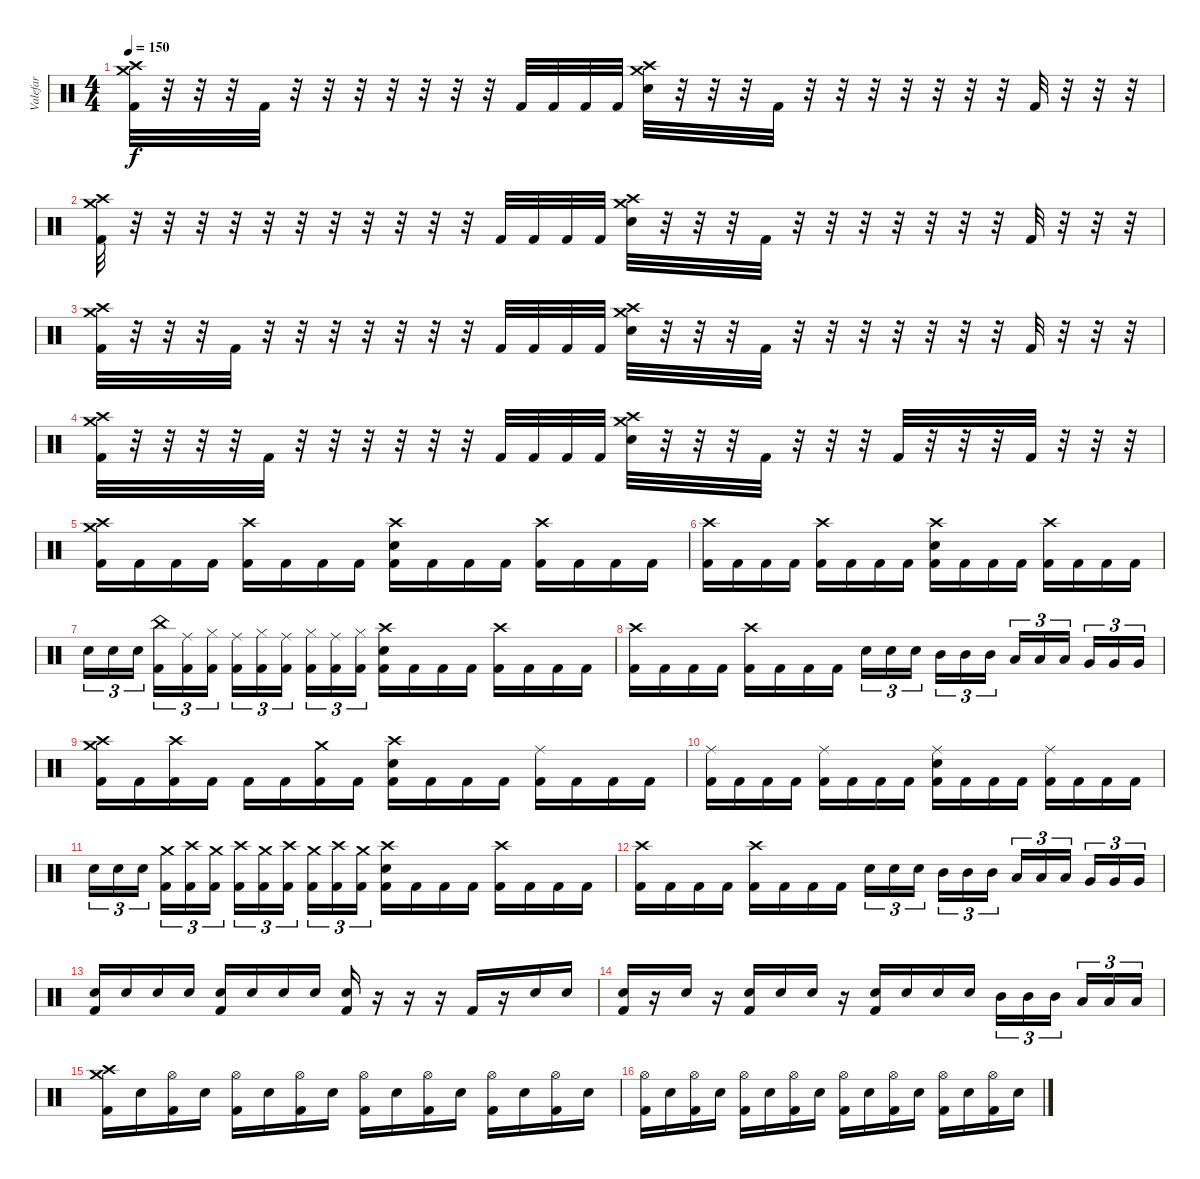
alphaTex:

\track ("Valefar" "Valefar") {instrument percussion}
\staff {score}
\articulation defaults
\ts (4 4)
\tempo 150
\clef neutral
\ks c
("Crash medium (hit)" "Crash high (hit)" "Kick (hit) 2").32{dy f} r.32 r.32 r.32 "Kick (hit) 2".32 r.32 r.32 r.32 r.32 r.32 r.32 r.32 "Kick (hit) 2".32 "Kick (hit) 2".32 "Kick (hit) 2".32 "Kick (hit) 2".32 ("Crash medium (hit)" "Crash high (hit)" "Electric Snare (hit)").32 r.32 r.32 r.32 "Kick (hit) 2".32 r.32 r.32 r.32 r.32 r.32 r.32 r.32 "Kick (hit) 2".32 r.32 r.32 r.32 |
("Crash medium (hit)" "Crash high (hit)" "Kick (hit) 2").32 r.32 r.32 r.32 r.32 r.32 r.32 r.32 r.32 r.32 r.32 r.32 "Kick (hit) 2".32 "Kick (hit) 2".32 "Kick (hit) 2".32 "Kick (hit) 2".32 ("Crash medium (hit)" "Crash high (hit)" "Electric Snare (hit)").32 r.32 r.32 r.32 "Kick (hit) 2".32 r.32 r.32 r.32 r.32 r.32 r.32 r.32 "Kick (hit) 2".32 r.32 r.32 r.32 |
("Crash medium (hit)" "Crash high (hit)" "Kick (hit) 2").32 r.32 r.32 r.32 "Kick (hit) 2".32 r.32 r.32 r.32 r.32 r.32 r.32 r.32 "Kick (hit) 2".32 "Kick (hit) 2".32 "Kick (hit) 2".32 "Kick (hit) 2".32 ("Crash medium (hit)" "Crash high (hit)" "Electric Snare (hit)").32 r.32 r.32 r.32 "Kick (hit) 2".32 r.32 r.32 r.32 r.32 r.32 r.32 r.32 "Kick (hit) 2".32 r.32 r.32 r.32 |
("Crash medium (hit)" "Crash high (hit)" "Kick (hit) 2").32 r.32 r.32 r.32 r.32 "Kick (hit) 2".32 r.32 r.32 r.32 r.32 r.32 r.32 "Kick (hit) 2".32 "Kick (hit) 2".32 "Kick (hit) 2".32 "Kick (hit) 2".32 ("Crash medium (hit)" "Crash high (hit)" "Electric Snare (hit)").32 r.32 r.32 r.32 "Kick (hit) 2".32 r.32 r.32 r.32 "Kick (hit) 2".32 r.32 r.32 r.32 "Kick (hit) 2".32 r.32 r.32 r.32 |
("Crash medium (hit)" "Crash high (hit)" "Kick (hit) 2").16 "Kick (hit) 2".16 "Kick (hit) 2".16 "Kick (hit) 2".16 ("Crash high (hit)" "Kick (hit) 2").16 "Kick (hit) 2".16 "Kick (hit) 2".16 "Kick (hit) 2".16 ("Crash high (hit)" "Electric Snare (hit)" "Kick (hit) 2").16 "Kick (hit) 2".16 "Kick (hit) 2".16 "Kick (hit) 2".16 ("Crash high (hit)" "Kick (hit) 2").16 "Kick (hit) 2".16 "Kick (hit) 2".16 "Kick (hit) 2".16 |
("Crash high (hit)" "Kick (hit) 2").16 "Kick (hit) 2".16 "Kick (hit) 2".16 "Kick (hit) 2".16 ("Crash high (hit)" "Kick (hit) 2").16 "Kick (hit) 2".16 "Kick (hit) 2".16 "Kick (hit) 2".16 ("Crash high (hit)" "Electric Snare (hit)" "Kick (hit) 2").16 "Kick (hit) 2".16 "Kick (hit) 2".16 "Kick (hit) 2".16 ("Crash high (hit)" "Kick (hit) 2").16 "Kick (hit) 2".16 "Kick (hit) 2".16 "Kick (hit) 2".16 |
"Electric Snare (hit)".16{tu (3 2)} "Electric Snare (hit)".16{tu (3 2)} "Electric Snare (hit)".16{tu (3 2) beam splitsecondary} ("China (hit)" "Kick (hit) 2").16{tu (3 2)} ("Ride (middle)" "Kick (hit) 2").16{tu (3 2)} ("Hi-Hat (closed)" "Kick (hit) 2").16{tu (3 2)} ("Ride (middle)" "Kick (hit) 2").16{tu (3 2)} ("Hi-Hat (closed)" "Kick (hit) 2").16{tu (3 2)} ("Ride (middle)" "Kick (hit) 2").16{tu (3 2) beam splitsecondary} ("Hi-Hat (closed)" "Kick (hit) 2").16{tu (3 2)} ("Ride (middle)" "Kick (hit) 2").16{tu (3 2)} ("Hi-Hat (closed)" "Kick (hit) 2").16{tu (3 2)} ("Crash high (hit)" "Electric Snare (hit)" "Kick (hit) 2").16 "Kick (hit) 2".16 "Kick (hit) 2".16 "Kick (hit) 2".16 ("Crash high (hit)" "Kick (hit) 2").16 "Kick (hit) 2".16 "Kick (hit) 2".16 "Kick (hit) 2".16 |
("Crash high (hit)" "Kick (hit) 2").16 "Kick (hit) 2".16 "Kick (hit) 2".16 "Kick (hit) 2".16 ("Crash high (hit)" "Kick (hit) 2").16 "Kick (hit) 2".16 "Kick (hit) 2".16 "Kick (hit) 2".16 "Electric Snare (hit)".16{tu (3 2)} "Electric Snare (hit)".16{tu (3 2)} "Electric Snare (hit)".16{tu (3 2) beam splitsecondary} "Mid Tom (hit)".16{tu (3 2)} "Mid Tom (hit)".16{tu (3 2)} "Mid Tom (hit)".16{tu (3 2)} "Low Tom (hit)".16{tu (3 2)} "Low Tom (hit)".16{tu (3 2)} "Low Tom (hit)".16{tu (3 2) beam splitsecondary} "Very Low Tom (hit)".16{tu (3 2)} "Very Low Tom (hit)".16{tu (3 2)} "Very Low Tom (hit)".16{tu (3 2)} |
("Crash medium (hit)" "Crash high (hit)" "Kick (hit) 2").16 "Kick (hit) 2".16 ("Crash high (hit)" "Kick (hit) 2").16 "Kick (hit) 2".16 "Kick (hit) 2".16 "Kick (hit) 2".16 ("Crash medium (hit)" "Kick (hit) 2").16 "Kick (hit) 2".16 ("Crash high (hit)" "Electric Snare (hit)" "Kick (hit) 2").16 "Kick (hit) 2".16 "Kick (hit) 2".16 "Kick (hit) 2".16 ("Ride (middle)" "Kick (hit) 2").16 "Kick (hit) 2".16 "Kick (hit) 2".16 "Kick (hit) 2".16 |
("Ride (middle)" "Kick (hit) 2").16 "Kick (hit) 2".16 "Kick (hit) 2".16 "Kick (hit) 2".16 ("Ride (middle)" "Kick (hit) 2").16 "Kick (hit) 2".16 "Kick (hit) 2".16 "Kick (hit) 2".16 ("Ride (middle)" "Electric Snare (hit)" "Kick (hit) 2").16 "Kick (hit) 2".16 "Kick (hit) 2".16 "Kick (hit) 2".16 ("Ride (middle)" "Kick (hit) 2").16 "Kick (hit) 2".16 "Kick (hit) 2".16 "Kick (hit) 2".16 |
"Electric Snare (hit)".16{tu (3 2)} "Electric Snare (hit)".16{tu (3 2)} "Electric Snare (hit)".16{tu (3 2) beam splitsecondary} ("Crash medium (hit)" "Kick (hit) 2").16{tu (3 2)} ("Crash high (hit)" "Kick (hit) 2").16{tu (3 2)} ("Crash medium (hit)" "Kick (hit) 2").16{tu (3 2)} ("Crash high (hit)" "Kick (hit) 2").16{tu (3 2)} ("Crash medium (hit)" "Kick (hit) 2").16{tu (3 2)} ("Crash high (hit)" "Kick (hit) 2").16{tu (3 2) beam splitsecondary} ("Crash medium (hit)" "Kick (hit) 2").16{tu (3 2)} ("Crash high (hit)" "Kick (hit) 2").16{tu (3 2)} ("Crash medium (hit)" "Kick (hit) 2").16{tu (3 2)} ("Crash high (hit)" "Electric Snare (hit)" "Kick (hit) 2").16 "Kick (hit) 2".16 "Kick (hit) 2".16 "Kick (hit) 2".16 ("Crash high (hit)" "Kick (hit) 2").16 "Kick (hit) 2".16 "Kick (hit) 2".16 "Kick (hit) 2".16 |
("Crash high (hit)" "Kick (hit) 2").16 "Kick (hit) 2".16 "Kick (hit) 2".16 "Kick (hit) 2".16 ("Crash high (hit)" "Kick (hit) 2").16 "Kick (hit) 2".16 "Kick (hit) 2".16 "Kick (hit) 2".16 "Electric Snare (hit)".16{tu (3 2)} "Electric Snare (hit)".16{tu (3 2)} "Electric Snare (hit)".16{tu (3 2) beam splitsecondary} "Mid Tom (hit)".16{tu (3 2)} "Mid Tom (hit)".16{tu (3 2)} "Mid Tom (hit)".16{tu (3 2)} "Low Tom (hit)".16{tu (3 2)} "Low Tom (hit)".16{tu (3 2)} "Low Tom (hit)".16{tu (3 2) beam splitsecondary} "Very Low Tom (hit)".16{tu (3 2)} "Very Low Tom (hit)".16{tu (3 2)} "Very Low Tom (hit)".16{tu (3 2)} |
("Electric Snare (hit)" "Kick (hit) 2").16 "Electric Snare (hit)".16 "Electric Snare (hit)".16 "Electric Snare (hit)".16 ("Electric Snare (hit)" "Kick (hit) 2").16 "Electric Snare (hit)".16 "Electric Snare (hit)".16 "Electric Snare (hit)".16 ("Electric Snare (hit)" "Kick (hit) 2").16 r.16 r.16 r.16 "Kick (hit) 2".16 r.16 "Electric Snare (hit)".16 "Electric Snare (hit)".16 |
("Electric Snare (hit)" "Kick (hit) 2").16 r.16 "Electric Snare (hit)".16 r.16 ("Electric Snare (hit)" "Kick (hit) 2").16 "Electric Snare (hit)".16 "Electric Snare (hit)".16 r.16 ("Electric Snare (hit)" "Kick (hit) 2").16 "Electric Snare (hit)".16 "Electric Snare (hit)".16 "Electric Snare (hit)".16 "Mid Tom (hit)".16{tu (3 2)} "Mid Tom (hit)".16{tu (3 2)} "Mid Tom (hit)".16{tu (3 2) beam splitsecondary} "Low Tom (hit)".16{tu (3 2)} "Low Tom (hit)".16{tu (3 2)} "Low Tom (hit)".16{tu (3 2)} |
("Crash medium (hit)" "Crash high (hit)" "Kick (hit) 2").16 "Electric Snare (hit)".16 ("Hi-Hat (open)" "Kick (hit) 2").16 "Electric Snare (hit)".16 ("Hi-Hat (open)" "Kick (hit) 2").16 "Electric Snare (hit)".16 ("Hi-Hat (open)" "Kick (hit) 2").16 "Electric Snare (hit)".16 ("Hi-Hat (open)" "Kick (hit) 2").16 "Electric Snare (hit)".16 ("Hi-Hat (open)" "Kick (hit) 2").16 "Electric Snare (hit)".16 ("Hi-Hat (open)" "Kick (hit) 2").16 "Electric Snare (hit)".16 ("Hi-Hat (open)" "Kick (hit) 2").16 "Electric Snare (hit)".16 |
("Hi-Hat (open)" "Kick (hit) 2").16 "Electric Snare (hit)".16 ("Hi-Hat (open)" "Kick (hit) 2").16 "Electric Snare (hit)".16 ("Hi-Hat (open)" "Kick (hit) 2").16 "Electric Snare (hit)".16 ("Hi-Hat (open)" "Kick (hit) 2").16 "Electric Snare (hit)".16 ("Hi-Hat (open)" "Kick (hit) 2").16 "Electric Snare (hit)".16 ("Hi-Hat (open)" "Kick (hit) 2").16 "Electric Snare (hit)".16 ("Hi-Hat (open)" "Kick (hit) 2").16 "Electric Snare (hit)".16 ("Hi-Hat (open)" "Kick (hit) 2").16 "Electric Snare (hit)".16
